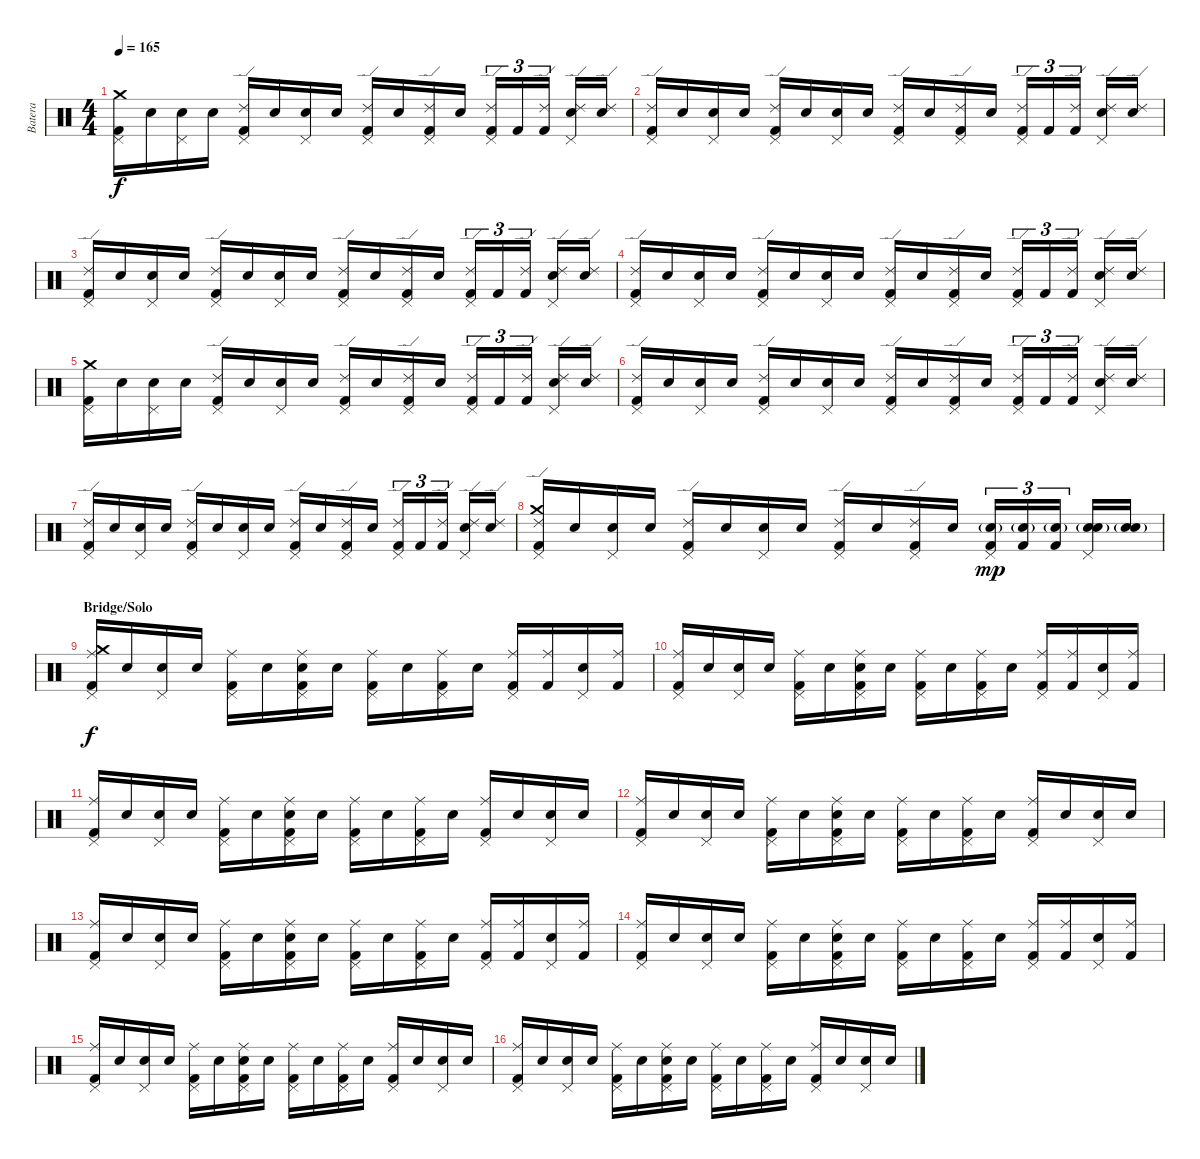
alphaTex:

\track ("Batera" "Batera") {instrument percussion}
\staff {score}
\articulation defaults
\ts (4 4)
\tempo 165
\clef neutral
\ks c
("Kick (hit) 2" "Pedal Hi-Hat (hit)" "Crash medium (hit)").16{dy f} "Snare (hit)".16 ("Snare (hit)" "Pedal Hi-Hat (hit)").16 "Snare (hit)".16 ("Kick (hit) 2" "Pedal Hi-Hat (hit)" "Ride (edge) 2").16 "Snare (hit)".16 ("Pedal Hi-Hat (hit)" "Snare (hit) 2").16 "Snare (hit)".16 ("Kick (hit) 2" "Pedal Hi-Hat (hit)" "Ride (edge) 2").16 "Snare (hit)".16 ("Kick (hit) 2" "Pedal Hi-Hat (hit)" "Ride (edge) 2").16 "Snare (hit)".16 ("Kick (hit) 2" "Pedal Hi-Hat (hit)" "Ride (edge) 2").16{tu (3 2)} "Kick (hit) 2".16{tu (3 2)} ("Kick (hit) 2" "Ride (edge) 2").16{tu (3 2)} ("Pedal Hi-Hat (hit)" "Snare (hit) 2" "Ride (edge) 2").16 ("Snare (hit)" "Ride (edge) 2").16 |
("Kick (hit) 2" "Pedal Hi-Hat (hit)" "Ride (edge) 2").16 "Snare (hit)".16 ("Snare (hit)" "Pedal Hi-Hat (hit)").16 "Snare (hit)".16 ("Kick (hit) 2" "Pedal Hi-Hat (hit)" "Ride (edge) 2").16 "Snare (hit)".16 ("Pedal Hi-Hat (hit)" "Snare (hit) 2").16 "Snare (hit)".16 ("Kick (hit) 2" "Pedal Hi-Hat (hit)" "Ride (edge) 2").16 "Snare (hit)".16 ("Kick (hit) 2" "Pedal Hi-Hat (hit)" "Ride (edge) 2").16 "Snare (hit)".16 ("Kick (hit) 2" "Pedal Hi-Hat (hit)" "Ride (edge) 2").16{tu (3 2)} "Kick (hit) 2".16{tu (3 2)} ("Kick (hit) 2" "Ride (edge) 2").16{tu (3 2)} ("Pedal Hi-Hat (hit)" "Snare (hit) 2" "Ride (edge) 2").16 ("Snare (hit)" "Ride (edge) 2").16 |
("Kick (hit) 2" "Pedal Hi-Hat (hit)" "Ride (edge) 2").16 "Snare (hit)".16 ("Snare (hit)" "Pedal Hi-Hat (hit)").16 "Snare (hit)".16 ("Kick (hit) 2" "Pedal Hi-Hat (hit)" "Ride (edge) 2").16 "Snare (hit)".16 ("Pedal Hi-Hat (hit)" "Snare (hit) 2").16 "Snare (hit)".16 ("Kick (hit) 2" "Pedal Hi-Hat (hit)" "Ride (edge) 2").16 "Snare (hit)".16 ("Kick (hit) 2" "Pedal Hi-Hat (hit)" "Ride (edge) 2").16 "Snare (hit)".16 ("Kick (hit) 2" "Pedal Hi-Hat (hit)" "Ride (edge) 2").16{tu (3 2)} "Kick (hit) 2".16{tu (3 2)} ("Kick (hit) 2" "Ride (edge) 2").16{tu (3 2)} ("Pedal Hi-Hat (hit)" "Snare (hit) 2" "Ride (edge) 2").16 ("Snare (hit)" "Ride (edge) 2").16 |
("Kick (hit) 2" "Pedal Hi-Hat (hit)" "Ride (edge) 2").16 "Snare (hit)".16 ("Snare (hit)" "Pedal Hi-Hat (hit)").16 "Snare (hit)".16 ("Kick (hit) 2" "Pedal Hi-Hat (hit)" "Ride (edge) 2").16 "Snare (hit)".16 ("Pedal Hi-Hat (hit)" "Snare (hit) 2").16 "Snare (hit)".16 ("Kick (hit) 2" "Pedal Hi-Hat (hit)" "Ride (edge) 2").16 "Snare (hit)".16 ("Kick (hit) 2" "Pedal Hi-Hat (hit)" "Ride (edge) 2").16 "Snare (hit)".16 ("Kick (hit) 2" "Pedal Hi-Hat (hit)" "Ride (edge) 2").16{tu (3 2)} "Kick (hit) 2".16{tu (3 2)} ("Kick (hit) 2" "Ride (edge) 2").16{tu (3 2)} ("Pedal Hi-Hat (hit)" "Snare (hit) 2" "Ride (edge) 2").16 ("Snare (hit)" "Ride (edge) 2").16 |
("Kick (hit) 2" "Pedal Hi-Hat (hit)" "Crash medium (hit)").16 "Snare (hit)".16 ("Snare (hit)" "Pedal Hi-Hat (hit)").16 "Snare (hit)".16 ("Kick (hit) 2" "Pedal Hi-Hat (hit)" "Ride (edge) 2").16 "Snare (hit)".16 ("Pedal Hi-Hat (hit)" "Snare (hit) 2").16 "Snare (hit)".16 ("Kick (hit) 2" "Pedal Hi-Hat (hit)" "Ride (edge) 2").16 "Snare (hit)".16 ("Kick (hit) 2" "Pedal Hi-Hat (hit)" "Ride (edge) 2").16 "Snare (hit)".16 ("Kick (hit) 2" "Pedal Hi-Hat (hit)" "Ride (edge) 2").16{tu (3 2)} "Kick (hit) 2".16{tu (3 2)} ("Kick (hit) 2" "Ride (edge) 2").16{tu (3 2)} ("Pedal Hi-Hat (hit)" "Snare (hit) 2" "Ride (edge) 2").16 ("Snare (hit)" "Ride (edge) 2").16 |
("Kick (hit) 2" "Pedal Hi-Hat (hit)" "Ride (edge) 2").16 "Snare (hit)".16 ("Snare (hit)" "Pedal Hi-Hat (hit)").16 "Snare (hit)".16 ("Kick (hit) 2" "Pedal Hi-Hat (hit)" "Ride (edge) 2").16 "Snare (hit)".16 ("Pedal Hi-Hat (hit)" "Snare (hit) 2").16 "Snare (hit)".16 ("Kick (hit) 2" "Pedal Hi-Hat (hit)" "Ride (edge) 2").16 "Snare (hit)".16 ("Kick (hit) 2" "Pedal Hi-Hat (hit)" "Ride (edge) 2").16 "Snare (hit)".16 ("Kick (hit) 2" "Pedal Hi-Hat (hit)" "Ride (edge) 2").16{tu (3 2)} "Kick (hit) 2".16{tu (3 2)} ("Kick (hit) 2" "Ride (edge) 2").16{tu (3 2)} ("Pedal Hi-Hat (hit)" "Snare (hit) 2" "Ride (edge) 2").16 ("Snare (hit)" "Ride (edge) 2").16 |
("Kick (hit) 2" "Pedal Hi-Hat (hit)" "Ride (edge) 2").16 "Snare (hit)".16 ("Snare (hit)" "Pedal Hi-Hat (hit)").16 "Snare (hit)".16 ("Kick (hit) 2" "Pedal Hi-Hat (hit)" "Ride (edge) 2").16 "Snare (hit)".16 ("Pedal Hi-Hat (hit)" "Snare (hit) 2").16 "Snare (hit)".16 ("Kick (hit) 2" "Pedal Hi-Hat (hit)" "Ride (edge) 2").16 "Snare (hit)".16 ("Kick (hit) 2" "Pedal Hi-Hat (hit)" "Ride (edge) 2").16 "Snare (hit)".16 ("Kick (hit) 2" "Pedal Hi-Hat (hit)" "Ride (edge) 2").16{tu (3 2)} "Kick (hit) 2".16{tu (3 2)} ("Kick (hit) 2" "Ride (edge) 2").16{tu (3 2)} ("Pedal Hi-Hat (hit)" "Snare (hit) 2" "Ride (edge) 2").16 ("Snare (hit)" "Ride (edge) 2").16 |
("Kick (hit) 2" "Pedal Hi-Hat (hit)" "Crash medium (hit)" "Ride (edge) 2").16 "Snare (hit)".16 ("Snare (hit)" "Pedal Hi-Hat (hit)").16 "Snare (hit)".16 ("Kick (hit) 2" "Pedal Hi-Hat (hit)" "Ride (edge) 2").16 "Snare (hit)".16 ("Pedal Hi-Hat (hit)" "Snare (hit) 2").16 "Snare (hit)".16 ("Kick (hit) 2" "Pedal Hi-Hat (hit)" "Ride (edge) 2").16 "Snare (hit)".16 ("Kick (hit) 2" "Pedal Hi-Hat (hit)" "Ride (edge) 2").16 "Snare (hit)".16 ("Kick (hit) 2" "Pedal Hi-Hat (hit)" "Snare (hit) 2"{g}).16{tu (3 2) dy mp} ("Kick (hit) 2" "Snare (hit) 2"{g}).16{tu (3 2)} ("Kick (hit) 2" "Snare (hit) 2"{g}).16{tu (3 2)} ("Pedal Hi-Hat (hit)" "Snare (hit) 2" "Snare (hit) 2"{g}).16 ("Snare (hit)" "Snare (hit) 2"{g}).16 |
\section ("" "Bridge/Solo")
("Kick (hit) 2" "Pedal Hi-Hat (hit)" "Crash medium (hit)" "Ride (middle)").16{dy f} "Snare (hit)".16 ("Snare (hit)" "Pedal Hi-Hat (hit)").16 "Snare (hit)".16 ("Kick (hit) 2" "Pedal Hi-Hat (hit)" "Ride (middle)").16 "Snare (hit)".16 ("Kick (hit) 2" "Pedal Hi-Hat (hit)" "Snare (hit) 2" "Ride (middle)").16 "Snare (hit)".16 ("Kick (hit) 2" "Pedal Hi-Hat (hit)" "Ride (middle)").16 "Snare (hit)".16 ("Kick (hit) 2" "Pedal Hi-Hat (hit)" "Ride (middle)").16 "Snare (hit)".16 ("Kick (hit) 2" "Pedal Hi-Hat (hit)" "Ride (middle)").16 ("Kick (hit) 2" "Ride (middle)").16 ("Pedal Hi-Hat (hit)" "Snare (hit) 2").16 ("Kick (hit) 2" "Ride (middle)").16 |
("Kick (hit) 2" "Pedal Hi-Hat (hit)" "Ride (middle)").16 "Snare (hit)".16 ("Snare (hit)" "Pedal Hi-Hat (hit)").16 "Snare (hit)".16 ("Kick (hit) 2" "Pedal Hi-Hat (hit)" "Ride (middle)").16 "Snare (hit)".16 ("Kick (hit) 2" "Pedal Hi-Hat (hit)" "Snare (hit) 2" "Ride (middle)").16 "Snare (hit)".16 ("Kick (hit) 2" "Pedal Hi-Hat (hit)" "Ride (middle)").16 "Snare (hit)".16 ("Kick (hit) 2" "Pedal Hi-Hat (hit)" "Ride (middle)").16 "Snare (hit)".16 ("Kick (hit) 2" "Pedal Hi-Hat (hit)" "Ride (middle)").16 ("Kick (hit) 2" "Ride (middle)").16 ("Pedal Hi-Hat (hit)" "Snare (hit) 2").16 ("Kick (hit) 2" "Ride (middle)").16 |
("Kick (hit) 2" "Pedal Hi-Hat (hit)" "Ride (middle)").16 "Snare (hit)".16 ("Snare (hit)" "Pedal Hi-Hat (hit)").16 "Snare (hit)".16 ("Kick (hit) 2" "Pedal Hi-Hat (hit)" "Ride (middle)").16 "Snare (hit)".16 ("Kick (hit) 2" "Pedal Hi-Hat (hit)" "Snare (hit) 2" "Ride (middle)").16 "Snare (hit)".16 ("Kick (hit) 2" "Pedal Hi-Hat (hit)" "Ride (middle)").16 "Snare (hit)".16 ("Kick (hit) 2" "Pedal Hi-Hat (hit)" "Ride (middle)").16 "Snare (hit)".16 ("Kick (hit) 2" "Pedal Hi-Hat (hit)" "Ride (middle)").16 "Snare (hit)".16 ("Pedal Hi-Hat (hit)" "Snare (hit) 2").16 "Snare (hit)".16 |
("Kick (hit) 2" "Pedal Hi-Hat (hit)" "Ride (middle)").16 "Snare (hit)".16 ("Snare (hit)" "Pedal Hi-Hat (hit)").16 "Snare (hit)".16 ("Kick (hit) 2" "Pedal Hi-Hat (hit)" "Ride (middle)").16 "Snare (hit)".16 ("Kick (hit) 2" "Pedal Hi-Hat (hit)" "Snare (hit) 2" "Ride (middle)").16 "Snare (hit)".16 ("Kick (hit) 2" "Pedal Hi-Hat (hit)" "Ride (middle)").16 "Snare (hit)".16 ("Kick (hit) 2" "Pedal Hi-Hat (hit)" "Ride (middle)").16 "Snare (hit)".16 ("Kick (hit) 2" "Pedal Hi-Hat (hit)" "Ride (middle)").16 "Snare (hit)".16 ("Pedal Hi-Hat (hit)" "Snare (hit) 2").16 "Snare (hit)".16 |
("Kick (hit) 2" "Pedal Hi-Hat (hit)" "Ride (middle)").16 "Snare (hit)".16 ("Snare (hit)" "Pedal Hi-Hat (hit)").16 "Snare (hit)".16 ("Kick (hit) 2" "Pedal Hi-Hat (hit)" "Ride (middle)").16 "Snare (hit)".16 ("Kick (hit) 2" "Pedal Hi-Hat (hit)" "Snare (hit) 2" "Ride (middle)").16 "Snare (hit)".16 ("Kick (hit) 2" "Pedal Hi-Hat (hit)" "Ride (middle)").16 "Snare (hit)".16 ("Kick (hit) 2" "Pedal Hi-Hat (hit)" "Ride (middle)").16 "Snare (hit)".16 ("Kick (hit) 2" "Pedal Hi-Hat (hit)" "Ride (middle)").16 ("Kick (hit) 2" "Ride (middle)").16 ("Pedal Hi-Hat (hit)" "Snare (hit) 2").16 ("Kick (hit) 2" "Ride (middle)").16 |
("Kick (hit) 2" "Pedal Hi-Hat (hit)" "Ride (middle)").16 "Snare (hit)".16 ("Snare (hit)" "Pedal Hi-Hat (hit)").16 "Snare (hit)".16 ("Kick (hit) 2" "Pedal Hi-Hat (hit)" "Ride (middle)").16 "Snare (hit)".16 ("Kick (hit) 2" "Pedal Hi-Hat (hit)" "Snare (hit) 2" "Ride (middle)").16 "Snare (hit)".16 ("Kick (hit) 2" "Pedal Hi-Hat (hit)" "Ride (middle)").16 "Snare (hit)".16 ("Kick (hit) 2" "Pedal Hi-Hat (hit)" "Ride (middle)").16 "Snare (hit)".16 ("Kick (hit) 2" "Pedal Hi-Hat (hit)" "Ride (middle)").16 ("Kick (hit) 2" "Ride (middle)").16 ("Pedal Hi-Hat (hit)" "Snare (hit) 2").16 ("Kick (hit) 2" "Ride (middle)").16 |
("Kick (hit) 2" "Pedal Hi-Hat (hit)" "Ride (middle)").16 "Snare (hit)".16 ("Snare (hit)" "Pedal Hi-Hat (hit)").16 "Snare (hit)".16 ("Kick (hit) 2" "Pedal Hi-Hat (hit)" "Ride (middle)").16 "Snare (hit)".16 ("Kick (hit) 2" "Pedal Hi-Hat (hit)" "Snare (hit) 2" "Ride (middle)").16 "Snare (hit)".16 ("Kick (hit) 2" "Pedal Hi-Hat (hit)" "Ride (middle)").16 "Snare (hit)".16 ("Kick (hit) 2" "Pedal Hi-Hat (hit)" "Ride (middle)").16 "Snare (hit)".16 ("Kick (hit) 2" "Pedal Hi-Hat (hit)" "Ride (middle)").16 "Snare (hit)".16 ("Pedal Hi-Hat (hit)" "Snare (hit) 2").16 "Snare (hit)".16 |
("Kick (hit) 2" "Pedal Hi-Hat (hit)" "Ride (middle)").16 "Snare (hit)".16 ("Snare (hit)" "Pedal Hi-Hat (hit)").16 "Snare (hit)".16 ("Kick (hit) 2" "Pedal Hi-Hat (hit)" "Ride (middle)").16 "Snare (hit)".16 ("Kick (hit) 2" "Pedal Hi-Hat (hit)" "Snare (hit) 2" "Ride (middle)").16 "Snare (hit)".16 ("Kick (hit) 2" "Pedal Hi-Hat (hit)" "Ride (middle)").16 "Snare (hit)".16 ("Kick (hit) 2" "Pedal Hi-Hat (hit)" "Ride (middle)").16 "Snare (hit)".16 ("Kick (hit) 2" "Pedal Hi-Hat (hit)" "Ride (middle)").16 "Snare (hit)".16 ("Pedal Hi-Hat (hit)" "Snare (hit) 2").16 "Snare (hit)".16
